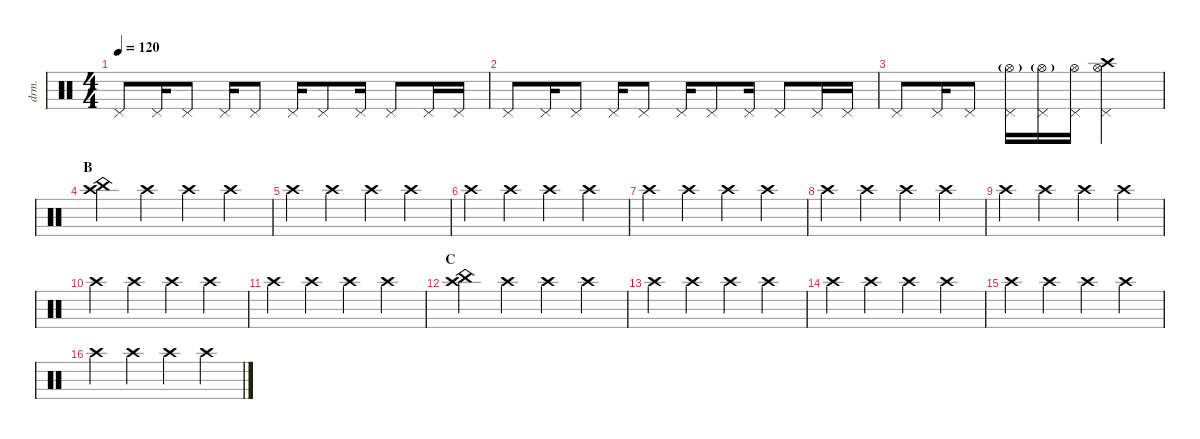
\defaultSystemsLayout 4
\hideDynamics
\bracketExtendMode nobrackets
\otherSystemsTrackNameOrientation horizontal
\track ("Batterie" "drm.") {instrument percussion}
\staff {score}
\articulation defaults
\ts (4 4)
\tempo 120
\clef neutral
\ks c "Pedal Hi-Hat (hit)".8{dy f} "Pedal Hi-Hat (hit)".16 "Pedal Hi-Hat (hit)".8 "Pedal Hi-Hat (hit)".16 "Pedal Hi-Hat (hit)".8 "Pedal Hi-Hat (hit)".16 "Pedal Hi-Hat (hit)".8 "Pedal Hi-Hat (hit)".16 "Pedal Hi-Hat (hit)".8 "Pedal Hi-Hat (hit)".16 "Pedal Hi-Hat (hit)".16
|
"Pedal Hi-Hat (hit)".8 "Pedal Hi-Hat (hit)".16 "Pedal Hi-Hat (hit)".8 "Pedal Hi-Hat (hit)".16 "Pedal Hi-Hat (hit)".8 "Pedal Hi-Hat (hit)".16 "Pedal Hi-Hat (hit)".8 "Pedal Hi-Hat (hit)".16 "Pedal Hi-Hat (hit)".8 "Pedal Hi-Hat (hit)".16 "Pedal Hi-Hat (hit)".16 |
"Pedal Hi-Hat (hit)".8 "Pedal Hi-Hat (hit)".16 "Pedal Hi-Hat (hit)".8 ("Pedal Hi-Hat (hit)" "Hi-Hat (open)"{g}).16 ("Pedal Hi-Hat (hit)" "Hi-Hat (open)"{g}).16 ("Pedal Hi-Hat (hit)" "Hi-Hat (open)").16 ("Pedal Hi-Hat (hit)" "Hi-Hat (open)" "Crash high (hit)").2 |
\section ("" "B")
("China (hit)" "Crash high (hit)").4 "Crash high (hit)".4 "Crash high (hit)".4 "Crash high (hit)".4 |
"Crash high (hit)".4 "Crash high (hit)".4 "Crash high (hit)".4 "Crash high (hit)".4 |
"Crash high (hit)".4 "Crash high (hit)".4 "Crash high (hit)".4 "Crash high (hit)".4 |
"Crash high (hit)".4 "Crash high (hit)".4 "Crash high (hit)".4 "Crash high (hit)".4 |
"Crash high (hit)".4 "Crash high (hit)".4 "Crash high (hit)".4 "Crash high (hit)".4 |
"Crash high (hit)".4 "Crash high (hit)".4 "Crash high (hit)".4 "Crash high (hit)".4 |
"Crash high (hit)".4 "Crash high (hit)".4 "Crash high (hit)".4 "Crash high (hit)".4 |
"Crash high (hit)".4 "Crash high (hit)".4 "Crash high (hit)".4 "Crash high (hit)".4 |
\section ("" "C")
("China (hit)" "Crash high (hit)").4 "Crash high (hit)".4 "Crash high (hit)".4 "Crash high (hit)".4 |
"Crash high (hit)".4 "Crash high (hit)".4 "Crash high (hit)".4 "Crash high (hit)".4 |
"Crash high (hit)".4 "Crash high (hit)".4 "Crash high (hit)".4 "Crash high (hit)".4 |
"Crash high (hit)".4 "Crash high (hit)".4 "Crash high (hit)".4 "Crash high (hit)".4 |
"Crash high (hit)".4 "Crash high (hit)".4 "Crash high (hit)".4 "Crash high (hit)".4
